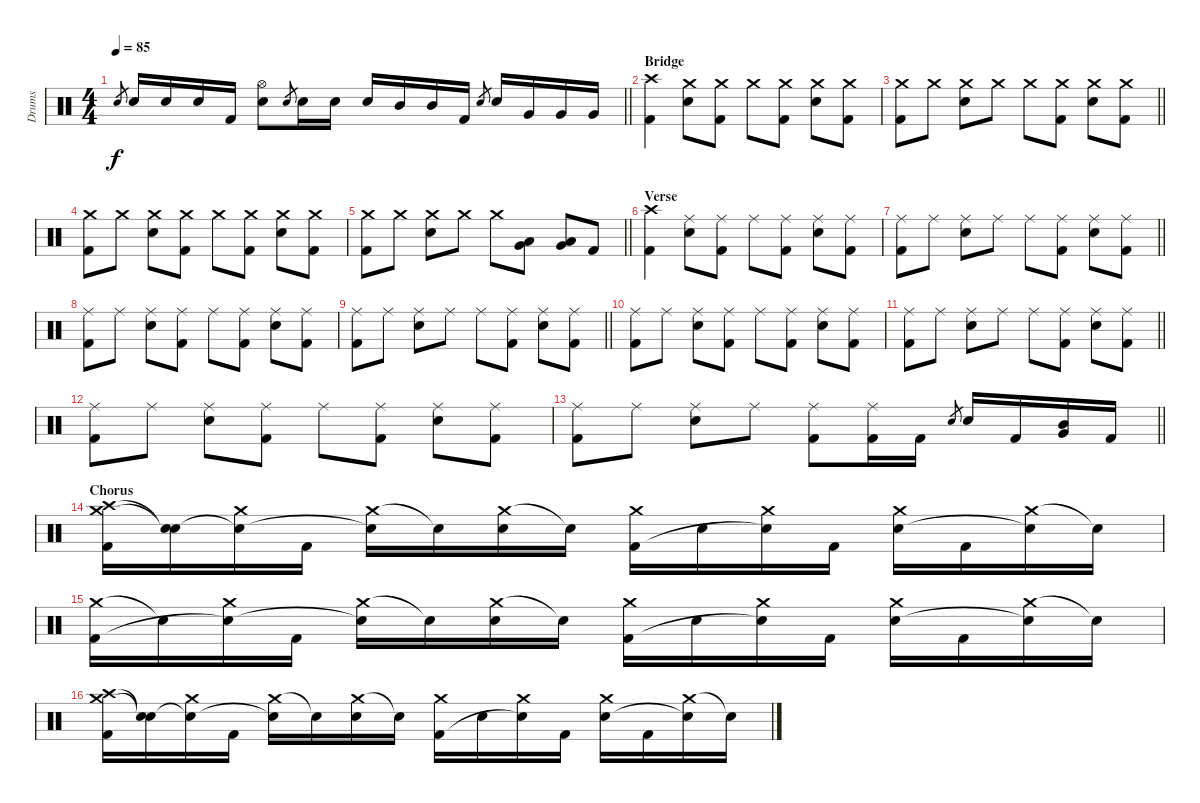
\track ("Drums" "Drums") {instrument percussion}
\staff {score}
\articulation defaults
\ts (4 4)
\tempo 85
\clef neutral
\barLineRight lightlight
\ks c "Snare (hit) 2".8{gr dy f} "Snare (hit) 2".16 "Snare (hit) 2".16 "Snare (hit) 2".16 "Kick (hit) 2".16
("Hi-Hat (open)" "Snare (hit) 2").8 "Snare (hit) 2".8{gr} "Snare (hit) 2".16 "Snare (hit) 2".16 "Snare (hit) 2".16 "Mid Tom (hit)".16 "Mid Tom (hit)".16 "Kick (hit) 2".16 "Snare (hit) 2".8{gr} "Snare (hit) 2".16 "Very Low Tom (hit)".16 "Very Low Tom (hit)".16 "Very Low Tom (hit)".16 |
\section ("" "Bridge")
("Crash high (hit)" "Kick (hit) 2").4 ("Crash medium (hit)" "Snare (hit) 2").8 ("Crash medium (hit)" "Kick (hit) 2").8 "Crash medium (hit)".8 ("Crash medium (hit)" "Kick (hit) 2").8 ("Crash medium (hit)" "Snare (hit) 2").8 ("Crash medium (hit)" "Kick (hit) 2").8 |
\barLineRight lightlight
("Crash medium (hit)" "Kick (hit) 2").8 "Crash medium (hit)".8 ("Crash medium (hit)" "Snare (hit) 2").8 "Crash medium (hit)".8 "Crash medium (hit)".8 ("Crash medium (hit)" "Kick (hit) 2").8 ("Crash medium (hit)" "Snare (hit) 2").8 ("Crash medium (hit)" "Kick (hit) 2").8 |
("Crash medium (hit)" "Kick (hit) 2").8 "Crash medium (hit)".8 ("Crash medium (hit)" "Snare (hit) 2").8 ("Crash medium (hit)" "Kick (hit) 2").8 "Crash medium (hit)".8 ("Crash medium (hit)" "Kick (hit) 2").8 ("Crash medium (hit)" "Snare (hit) 2").8 ("Crash medium (hit)" "Kick (hit) 2").8 |
\barLineRight lightlight
("Crash medium (hit)" "Kick (hit) 2").8 "Crash medium (hit)".8 ("Crash medium (hit)" "Snare (hit) 2").8 "Crash medium (hit)".8 "Crash medium (hit)".8 ("Very Low Tom (hit)" "Low Floor Tom (hit)").8 ("Very Low Tom (hit)" "Low Floor Tom (hit)").8 "Kick (hit) 2".8 |
\section ("" "Verse")
("Crash high (hit)" "Kick (hit) 2").4 ("Ride (middle)" "Snare (hit) 2").8 ("Ride (middle)" "Kick (hit) 2").8 "Ride (middle)".8 ("Ride (middle)" "Kick (hit) 2").8 ("Ride (middle)" "Snare (hit) 2").8 ("Ride (middle)" "Kick (hit) 2").8 |
\barLineRight lightlight
("Ride (middle)" "Kick (hit) 2").8 "Ride (middle)".8 ("Ride (middle)" "Snare (hit) 2").8 "Ride (middle)".8 "Ride (middle)".8 ("Ride (middle)" "Kick (hit) 2").8 ("Ride (middle)" "Snare (hit) 2").8 ("Ride (middle)" "Kick (hit) 2").8 |
("Ride (middle)" "Kick (hit) 2").8 "Ride (middle)".8 ("Ride (middle)" "Snare (hit) 2").8 ("Ride (middle)" "Kick (hit) 2").8 "Ride (middle)".8 ("Ride (middle)" "Kick (hit) 2").8 ("Ride (middle)" "Snare (hit) 2").8 ("Ride (middle)" "Kick (hit) 2").8 |
\barLineRight lightlight
("Ride (middle)" "Kick (hit) 2").8 "Ride (middle)".8 ("Ride (middle)" "Snare (hit) 2").8 "Ride (middle)".8 "Ride (middle)".8 ("Ride (middle)" "Kick (hit) 2").8 ("Ride (middle)" "Snare (hit) 2").8 ("Ride (middle)" "Kick (hit) 2").8 |
("Ride (middle)" "Kick (hit) 2").8 "Ride (middle)".8 ("Ride (middle)" "Snare (hit) 2").8 ("Ride (middle)" "Kick (hit) 2").8 "Ride (middle)".8 ("Ride (middle)" "Kick (hit) 2").8 ("Ride (middle)" "Snare (hit) 2").8 ("Ride (middle)" "Kick (hit) 2").8 |
\barLineRight lightlight
("Ride (middle)" "Kick (hit) 2").8 "Ride (middle)".8 ("Ride (middle)" "Snare (hit) 2").8 "Ride (middle)".8 "Ride (middle)".8 ("Ride (middle)" "Kick (hit) 2").8 ("Ride (middle)" "Snare (hit) 2").8 ("Ride (middle)" "Kick (hit) 2").8 |
("Ride (middle)" "Kick (hit) 2").8 "Ride (middle)".8 ("Ride (middle)" "Snare (hit) 2").8 ("Ride (middle)" "Kick (hit) 2").8 "Ride (middle)".8 ("Ride (middle)" "Kick (hit) 2").8 ("Ride (middle)" "Snare (hit) 2").8 ("Ride (middle)" "Kick (hit) 2").8 |
\barLineRight lightlight
("Ride (middle)" "Kick (hit) 2").8 "Ride (middle)".8 ("Ride (middle)" "Snare (hit) 2").8 "Ride (middle)".8 ("Ride (middle)" "Kick (hit) 2").8 ("Ride (middle)" "Kick (hit) 2").16 "Kick (hit) 2".16 "Snare (hit) 2".8{gr} "Snare (hit) 2".16 "Kick (hit) 2".16 ("Mid Tom (hit)" "Very Low Tom (hit)").16 "Kick (hit) 2".16 |
\section ("" "Chorus")
("Crash high (hit)" "Crash medium (hit)" "Kick (hit) 2").16 ("Snare (hit)"{t} "Snare (hit)"{t}).16 ("Crash medium (hit)" "Snare (hit)"{t}).16 "Kick (hit) 2".16 ("Crash medium (hit)" "Snare (hit)"{t}).16 "Snare (hit)"{t}.16 ("Crash medium (hit)" "Snare (hit) 2").16 "Snare (hit)"{t}.16 ("Crash medium (hit)" "Kick (hit) 2").16 "Snare (hit) 2".16 ("Crash medium (hit)" "Snare (hit)"{t}).16 "Kick (hit) 2".16 ("Crash medium (hit)" "Snare (hit) 2").16 "Kick (hit) 2".16 ("Crash medium (hit)" "Snare (hit)"{t}).16 "Snare (hit)"{t}.16 |
("Crash medium (hit)" "Kick (hit) 2").16 "Snare (hit)"{t}.16 ("Crash medium (hit)" "Snare (hit)"{t}).16 "Kick (hit) 2".16 ("Crash medium (hit)" "Snare (hit)"{t}).16 "Snare (hit)"{t}.16 ("Crash medium (hit)" "Snare (hit) 2").16 "Snare (hit)"{t}.16 ("Crash medium (hit)" "Kick (hit) 2").16 "Snare (hit) 2".16 ("Crash medium (hit)" "Snare (hit)"{t}).16 "Kick (hit) 2".16 ("Crash medium (hit)" "Snare (hit) 2").16 "Kick (hit) 2".16 ("Crash medium (hit)" "Snare (hit)"{t}).16 "Snare (hit)"{t}.16 |
("Crash high (hit)" "Crash medium (hit)" "Kick (hit) 2").16 ("Snare (hit)"{t} "Snare (hit)"{t}).16 ("Crash medium (hit)" "Snare (hit)"{t}).16 "Kick (hit) 2".16 ("Crash medium (hit)" "Snare (hit)"{t}).16 "Snare (hit)"{t}.16 ("Crash medium (hit)" "Snare (hit) 2").16 "Snare (hit)"{t}.16 ("Crash medium (hit)" "Kick (hit) 2").16 "Snare (hit) 2".16 ("Crash medium (hit)" "Snare (hit)"{t}).16 "Kick (hit) 2".16 ("Crash medium (hit)" "Snare (hit) 2").16 "Kick (hit) 2".16 ("Crash medium (hit)" "Snare (hit)"{t}).16 "Snare (hit)"{t}.16
